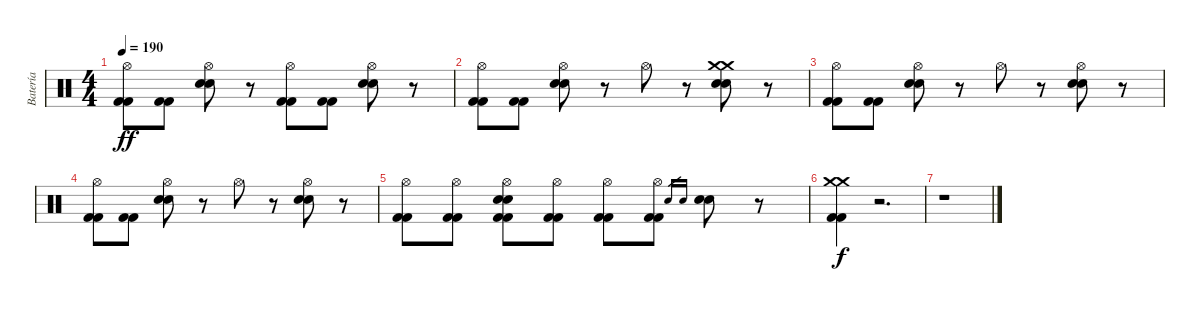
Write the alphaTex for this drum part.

\track ("Batería" "Batería") {instrument percussion}
\staff {score}
\articulation defaults
\ts (4 4)
\tempo 190
\clef neutral
\ks c
("Hi-Hat (open)" "Kick (hit) 2" "Kick (hit) 2").8{dy ff} ("Kick (hit) 2" "Kick (hit) 2").8 ("Hi-Hat (open)" "Electric Snare (hit)" "Electric Snare (hit)").8 r.8 ("Hi-Hat (open)" "Kick (hit) 2" "Kick (hit) 2").8 ("Kick (hit) 2" "Kick (hit) 2").8 ("Hi-Hat (open)" "Electric Snare (hit)" "Electric Snare (hit)").8 r.8 |
("Hi-Hat (open)" "Kick (hit) 2" "Kick (hit) 2").8 ("Kick (hit) 2" "Kick (hit) 2").8 ("Hi-Hat (open)" "Electric Snare (hit)" "Electric Snare (hit)").8 r.8 "Hi-Hat (open)".8 r.8 ("Crash medium (hit)" "Crash medium (hit)" "Electric Snare (hit)" "Electric Snare (hit)").8 r.8 |
("Hi-Hat (open)" "Kick (hit) 2" "Kick (hit) 2").8 ("Kick (hit) 2" "Kick (hit) 2").8 ("Hi-Hat (open)" "Electric Snare (hit)" "Electric Snare (hit)").8 r.8 "Hi-Hat (open)".8 r.8 ("Hi-Hat (open)" "Electric Snare (hit)" "Electric Snare (hit)").8 r.8 |
("Hi-Hat (open)" "Kick (hit) 2" "Kick (hit) 2").8 ("Kick (hit) 2" "Kick (hit) 2").8 ("Hi-Hat (open)" "Electric Snare (hit)" "Electric Snare (hit)").8 r.8 "Hi-Hat (open)".8 r.8 ("Hi-Hat (open)" "Electric Snare (hit)" "Electric Snare (hit)").8 r.8 |
("Hi-Hat (open)" "Kick (hit) 2" "Kick (hit) 2").8 ("Hi-Hat (open)" "Kick (hit) 2" "Kick (hit) 2").8 ("Hi-Hat (open)" "Electric Snare (hit)" "Electric Snare (hit)" "Kick (hit) 2" "Kick (hit) 2").8 ("Hi-Hat (open)" "Kick (hit) 2" "Kick (hit) 2").8 ("Hi-Hat (open)" "Kick (hit) 2" "Kick (hit) 2").8 ("Hi-Hat (open)" "Kick (hit) 2" "Kick (hit) 2").8 "Electric Snare (hit)".16{gr} "Electric Snare (hit)".16{gr} ("Electric Snare (hit)" "Electric Snare (hit)").8 r.8 |
("Crash medium (hit)" "Crash medium (hit)" "Kick (hit) 2" "Kick (hit) 2").4{dy f} r.2{d} |
r.1
